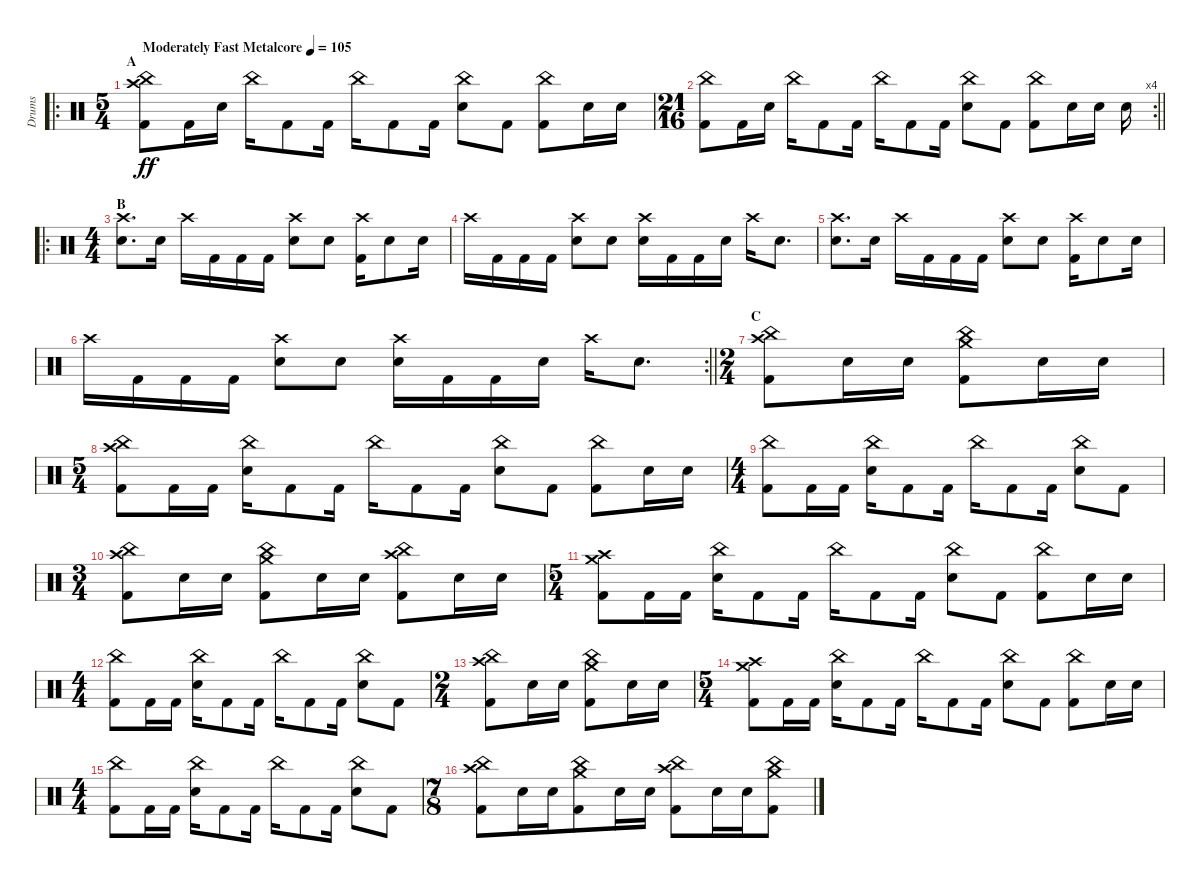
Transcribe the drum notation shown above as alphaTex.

\track ("Drums" "Drums") {instrument percussion}
\staff {score}
\articulation defaults
\ro
\ts (5 4)
\section ("" "A")
\tempo (105 "Moderately Fast Metalcore")
\clef neutral
\ks c
("Crash high (hit)" "China (hit)" "Kick (hit) 2").8{dy ff} "Kick (hit) 2".16 "Electric Snare (hit)".16 "China (hit)".16 "Kick (hit) 2".8 "Kick (hit) 2".16 "China (hit)".16 "Kick (hit) 2".8 "Kick (hit) 2".16 ("China (hit)" "Electric Snare (hit)").8 "Kick (hit) 2".8 ("China (hit)" "Kick (hit) 2").8 "Electric Snare (hit)".16 "Electric Snare (hit)".16 |
\rc 4
\ts (21 16)
\barLineRight lightlight
("China (hit)" "Kick (hit) 2").8 "Kick (hit) 2".16 "Electric Snare (hit)".16 "China (hit)".16 "Kick (hit) 2".8 "Kick (hit) 2".16 "China (hit)".16 "Kick (hit) 2".8 "Kick (hit) 2".16 ("China (hit)" "Electric Snare (hit)").8 "Kick (hit) 2".8 ("China (hit)" "Kick (hit) 2").8 "Electric Snare (hit)".16 "Electric Snare (hit)".16 "Electric Snare (hit)".16 |
\ro
\ts (4 4)
\section ("" "B")
("Crash high (hit)" "Electric Snare (hit)").8{d} "Electric Snare (hit)".16 "Crash high (hit)".16 "Kick (hit) 2".16 "Kick (hit) 2".16 "Kick (hit) 2".16 ("Crash high (hit)" "Electric Snare (hit)").8 "Electric Snare (hit)".8 ("Crash high (hit)" "Kick (hit) 2").16 "Electric Snare (hit)".8 "Electric Snare (hit)".16 |
"Crash high (hit)".16 "Kick (hit) 2".16 "Kick (hit) 2".16 "Kick (hit) 2".16 ("Crash high (hit)" "Electric Snare (hit)").8 "Electric Snare (hit)".8 ("Crash high (hit)" "Electric Snare (hit)").16 "Kick (hit) 2".16 "Kick (hit) 2".16 "Electric Snare (hit)".16 "Crash high (hit)".16 "Electric Snare (hit)".8{d} |
("Crash high (hit)" "Electric Snare (hit)").8{d} "Electric Snare (hit)".16 "Crash high (hit)".16 "Kick (hit) 2".16 "Kick (hit) 2".16 "Kick (hit) 2".16 ("Crash high (hit)" "Electric Snare (hit)").8 "Electric Snare (hit)".8 ("Crash high (hit)" "Kick (hit) 2").16 "Electric Snare (hit)".8 "Electric Snare (hit)".16 |
\rc 2
\barLineRight lightlight "Crash high (hit)".16 "Kick (hit) 2".16 "Kick (hit) 2".16 "Kick (hit) 2".16
("Crash high (hit)" "Electric Snare (hit)").8 "Electric Snare (hit)".8 ("Crash high (hit)" "Electric Snare (hit)").16 "Kick (hit) 2".16 "Kick (hit) 2".16 "Electric Snare (hit)".16 "Crash high (hit)".16 "Electric Snare (hit)".8{d} |
\ts (2 4)
\section ("" "C")
("Crash high (hit)" "China (hit)" "Kick (hit) 2").8 "Electric Snare (hit)".16 "Electric Snare (hit)".16 ("Crash medium (hit)" "China (hit)" "Kick (hit) 2").8 "Electric Snare (hit)".16 "Electric Snare (hit)".16 |
\ts (5 4)
("Crash high (hit)" "China (hit)" "Kick (hit) 2").8 "Kick (hit) 2".16 "Kick (hit) 2".16 ("China (hit)" "Electric Snare (hit)").16 "Kick (hit) 2".8 "Kick (hit) 2".16 "China (hit)".16 "Kick (hit) 2".8 "Kick (hit) 2".16 ("China (hit)" "Electric Snare (hit)").8 "Kick (hit) 2".8 ("China (hit)" "Kick (hit) 2").8 "Electric Snare (hit)".16 "Electric Snare (hit)".16 |
\ts (4 4)
("China (hit)" "Kick (hit) 2").8 "Kick (hit) 2".16 "Kick (hit) 2".16 ("China (hit)" "Electric Snare (hit)").16 "Kick (hit) 2".8 "Kick (hit) 2".16 "China (hit)".16 "Kick (hit) 2".8 "Kick (hit) 2".16 ("China (hit)" "Electric Snare (hit)").8 "Kick (hit) 2".8 |
\ts (3 4)
("Crash high (hit)" "China (hit)" "Kick (hit) 2").8 "Electric Snare (hit)".16 "Electric Snare (hit)".16 ("Crash medium (hit)" "China (hit)" "Kick (hit) 2").8 "Electric Snare (hit)".16 "Electric Snare (hit)".16 ("Crash high (hit)" "China (hit)" "Kick (hit) 2").8 "Electric Snare (hit)".16 "Electric Snare (hit)".16 |
\ts (5 4)
("Crash medium (hit)" "Crash high (hit)" "Kick (hit) 2").8 "Kick (hit) 2".16 "Kick (hit) 2".16 ("China (hit)" "Electric Snare (hit)").16 "Kick (hit) 2".8 "Kick (hit) 2".16 "China (hit)".16 "Kick (hit) 2".8 "Kick (hit) 2".16 ("China (hit)" "Electric Snare (hit)").8 "Kick (hit) 2".8 ("China (hit)" "Kick (hit) 2").8 "Electric Snare (hit)".16 "Electric Snare (hit)".16 |
\ts (4 4)
("China (hit)" "Kick (hit) 2").8 "Kick (hit) 2".16 "Kick (hit) 2".16 ("China (hit)" "Electric Snare (hit)").16 "Kick (hit) 2".8 "Kick (hit) 2".16 "China (hit)".16 "Kick (hit) 2".8 "Kick (hit) 2".16 ("China (hit)" "Electric Snare (hit)").8 "Kick (hit) 2".8 |
\ts (2 4)
("Crash high (hit)" "China (hit)" "Kick (hit) 2").8 "Electric Snare (hit)".16 "Electric Snare (hit)".16 ("Crash medium (hit)" "China (hit)" "Kick (hit) 2").8 "Electric Snare (hit)".16 "Electric Snare (hit)".16 |
\ts (5 4)
("Crash medium (hit)" "Crash high (hit)" "Kick (hit) 2").8 "Kick (hit) 2".16 "Kick (hit) 2".16 ("China (hit)" "Electric Snare (hit)").16 "Kick (hit) 2".8 "Kick (hit) 2".16 "China (hit)".16 "Kick (hit) 2".8 "Kick (hit) 2".16 ("China (hit)" "Electric Snare (hit)").8 "Kick (hit) 2".8 ("China (hit)" "Kick (hit) 2").8 "Electric Snare (hit)".16 "Electric Snare (hit)".16 |
\ts (4 4)
("China (hit)" "Kick (hit) 2").8 "Kick (hit) 2".16 "Kick (hit) 2".16 ("China (hit)" "Electric Snare (hit)").16 "Kick (hit) 2".8 "Kick (hit) 2".16 "China (hit)".16 "Kick (hit) 2".8 "Kick (hit) 2".16 ("China (hit)" "Electric Snare (hit)").8 "Kick (hit) 2".8 |
\ts (7 8)
("Crash high (hit)" "China (hit)" "Kick (hit) 2").8 "Electric Snare (hit)".16 "Electric Snare (hit)".16 ("Crash medium (hit)" "China (hit)" "Kick (hit) 2").8 "Electric Snare (hit)".16 "Electric Snare (hit)".16 ("Crash high (hit)" "China (hit)" "Kick (hit) 2").8 "Electric Snare (hit)".16 "Electric Snare (hit)".16 ("Crash medium (hit)" "China (hit)" "Kick (hit) 2").8
